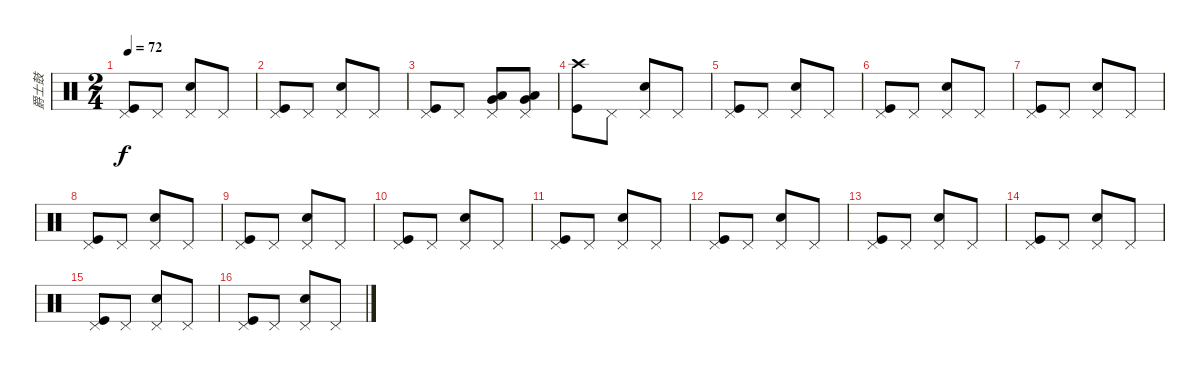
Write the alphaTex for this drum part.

\track ("爵士鼓" "爵士鼓") {instrument percussion}
\staff {score}
\articulation defaults
\ts (2 4)
\tempo 72
\clef neutral
\ks c
("Pedal Hi-Hat (hit)" "Kick (hit)").8{dy f} "Pedal Hi-Hat (hit)".8 ("Pedal Hi-Hat (hit)" "Electric Snare (hit)").8 "Pedal Hi-Hat (hit)".8 |
("Pedal Hi-Hat (hit)" "Kick (hit)").8 "Pedal Hi-Hat (hit)".8 ("Pedal Hi-Hat (hit)" "Electric Snare (hit)").8 "Pedal Hi-Hat (hit)".8 |
("Pedal Hi-Hat (hit)" "Kick (hit)").8 "Pedal Hi-Hat (hit)".8 ("Pedal Hi-Hat (hit)" "Low Tom (hit)" "Very Low Tom (hit)").8 ("Pedal Hi-Hat (hit)" "Very Low Tom (hit)" "Low Floor Tom (hit)").8 |
("Crash high (hit)" "Kick (hit)").8 "Pedal Hi-Hat (hit)".8 ("Pedal Hi-Hat (hit)" "Electric Snare (hit)").8 "Pedal Hi-Hat (hit)".8 |
("Pedal Hi-Hat (hit)" "Kick (hit)").8 "Pedal Hi-Hat (hit)".8 ("Pedal Hi-Hat (hit)" "Electric Snare (hit)").8 "Pedal Hi-Hat (hit)".8 |
("Pedal Hi-Hat (hit)" "Kick (hit)").8 "Pedal Hi-Hat (hit)".8 ("Pedal Hi-Hat (hit)" "Electric Snare (hit)").8 "Pedal Hi-Hat (hit)".8 |
("Pedal Hi-Hat (hit)" "Kick (hit)").8 "Pedal Hi-Hat (hit)".8 ("Pedal Hi-Hat (hit)" "Electric Snare (hit)").8 "Pedal Hi-Hat (hit)".8 |
("Pedal Hi-Hat (hit)" "Kick (hit)").8 "Pedal Hi-Hat (hit)".8 ("Pedal Hi-Hat (hit)" "Electric Snare (hit)").8 "Pedal Hi-Hat (hit)".8 |
("Pedal Hi-Hat (hit)" "Kick (hit)").8 "Pedal Hi-Hat (hit)".8 ("Pedal Hi-Hat (hit)" "Electric Snare (hit)").8 "Pedal Hi-Hat (hit)".8 |
("Pedal Hi-Hat (hit)" "Kick (hit)").8 "Pedal Hi-Hat (hit)".8 ("Pedal Hi-Hat (hit)" "Electric Snare (hit)").8 "Pedal Hi-Hat (hit)".8 |
("Pedal Hi-Hat (hit)" "Kick (hit)").8 "Pedal Hi-Hat (hit)".8 ("Pedal Hi-Hat (hit)" "Electric Snare (hit)").8 "Pedal Hi-Hat (hit)".8 |
("Pedal Hi-Hat (hit)" "Kick (hit)").8 "Pedal Hi-Hat (hit)".8 ("Pedal Hi-Hat (hit)" "Electric Snare (hit)").8 "Pedal Hi-Hat (hit)".8 |
("Pedal Hi-Hat (hit)" "Kick (hit)").8 "Pedal Hi-Hat (hit)".8 ("Pedal Hi-Hat (hit)" "Electric Snare (hit)").8 "Pedal Hi-Hat (hit)".8 |
("Pedal Hi-Hat (hit)" "Kick (hit)").8 "Pedal Hi-Hat (hit)".8 ("Pedal Hi-Hat (hit)" "Electric Snare (hit)").8 "Pedal Hi-Hat (hit)".8 |
("Pedal Hi-Hat (hit)" "Kick (hit)").8 "Pedal Hi-Hat (hit)".8 ("Pedal Hi-Hat (hit)" "Electric Snare (hit)").8 "Pedal Hi-Hat (hit)".8 |
("Pedal Hi-Hat (hit)" "Kick (hit)").8 "Pedal Hi-Hat (hit)".8 ("Pedal Hi-Hat (hit)" "Electric Snare (hit)").8 "Pedal Hi-Hat (hit)".8
